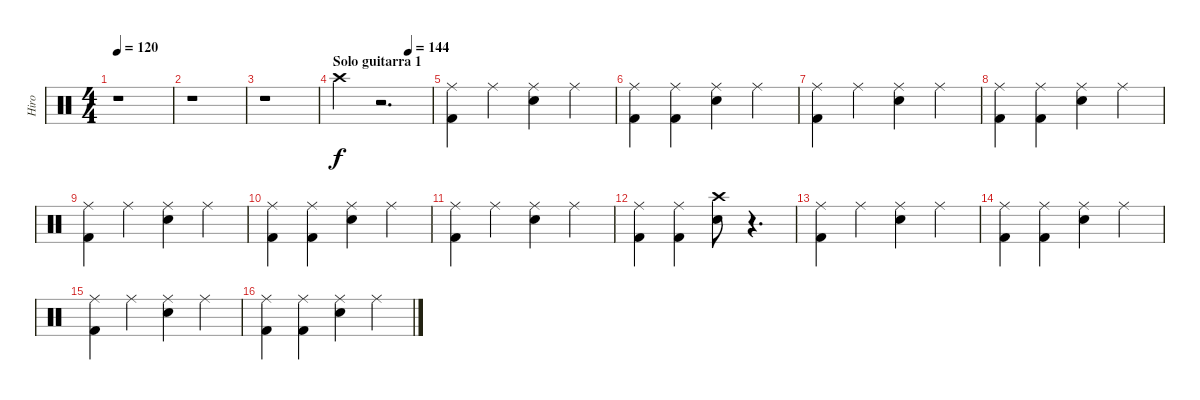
\track ("Hiro" "Hiro") {instrument percussion}
\staff {score}
\articulation defaults
\ts (4 4)
\tempo 120
\clef neutral
\ks c
r.1{dy f} |
r.1 |
r.1 |
\section ("" "Solo guitarra 1")
\tempo (144 0.75)
"Crash high (hit)".4 r.2{d} |
("Kick (hit) 2" "Ride (middle)").4 "Ride (middle)".4 ("Snare (hit) 2" "Ride (middle)").4 "Ride (middle)".4 |
("Kick (hit) 2" "Ride (middle)").4 ("Kick (hit) 2" "Ride (middle)").4 ("Snare (hit) 2" "Ride (middle)").4 "Ride (middle)".4 |
("Kick (hit) 2" "Ride (middle)").4 "Ride (middle)".4 ("Snare (hit) 2" "Ride (middle)").4 "Ride (middle)".4 |
("Kick (hit) 2" "Ride (middle)").4 ("Kick (hit) 2" "Ride (middle)").4 ("Snare (hit) 2" "Ride (middle)").4 "Ride (middle)".4 |
("Kick (hit) 2" "Ride (middle)").4 "Ride (middle)".4 ("Snare (hit) 2" "Ride (middle)").4 "Ride (middle)".4 |
("Kick (hit) 2" "Ride (middle)").4 ("Kick (hit) 2" "Ride (middle)").4 ("Snare (hit) 2" "Ride (middle)").4 "Ride (middle)".4 |
("Kick (hit) 2" "Ride (middle)").4 "Ride (middle)".4 ("Snare (hit) 2" "Ride (middle)").4 "Ride (middle)".4 |
("Kick (hit) 2" "Ride (middle)").4 ("Kick (hit) 2" "Ride (middle)").4 ("Crash high (hit)" "Snare (hit) 2").8 r.4{d} |
("Kick (hit) 2" "Ride (middle)").4 "Ride (middle)".4 ("Snare (hit) 2" "Ride (middle)").4 "Ride (middle)".4 |
("Kick (hit) 2" "Ride (middle)").4 ("Kick (hit) 2" "Ride (middle)").4 ("Snare (hit) 2" "Ride (middle)").4 "Ride (middle)".4 |
("Kick (hit) 2" "Ride (middle)").4 "Ride (middle)".4 ("Snare (hit) 2" "Ride (middle)").4 "Ride (middle)".4 |
("Kick (hit) 2" "Ride (middle)").4 ("Kick (hit) 2" "Ride (middle)").4 ("Snare (hit) 2" "Ride (middle)").4 "Ride (middle)".4
